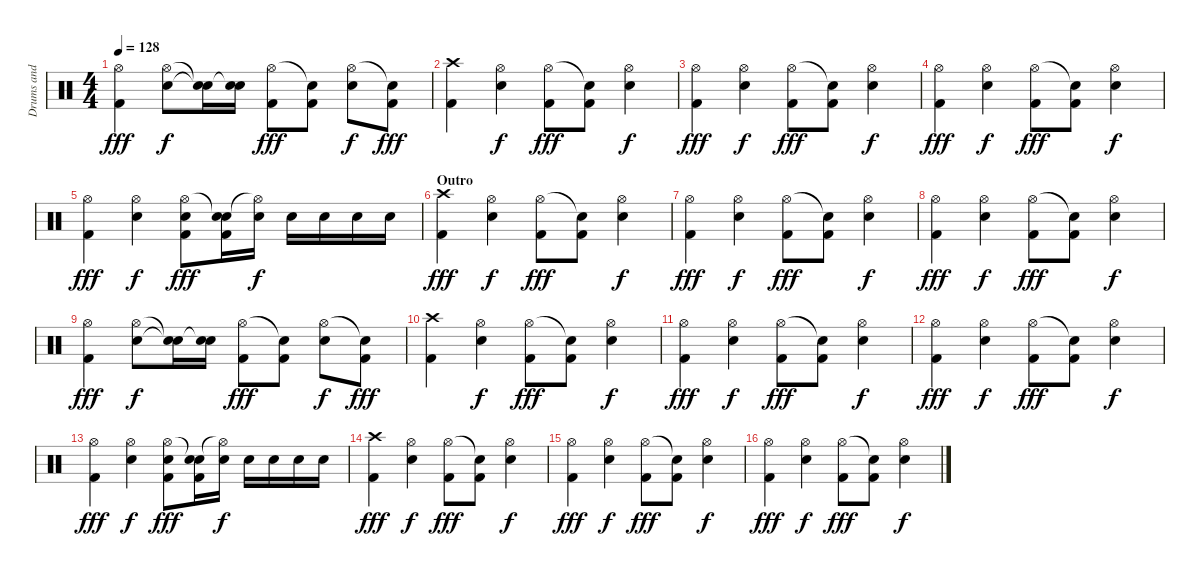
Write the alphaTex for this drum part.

\track ("Drums and Percussion" "Drums and ") {instrument percussion}
\staff {score}
\articulation defaults
\ts (4 4)
\tempo 128
\clef neutral
\ks c
("Hi-Hat (open)" "Kick (hit) 2").4{dy fff} ("Hi-Hat (open)" "Electric Snare (hit)").8{dy f} ("Snare (hit)"{t} "Snare (hit)"{t}).16 ("Snare (hit)"{t} "Electric Snare (hit)").16 ("Hi-Hat (open)" "Kick (hit) 2").8{dy fff} ("Snare (hit)"{t} "Kick (hit) 2").8 ("Hi-Hat (open)" "Electric Snare (hit)").8{dy f} ("Snare (hit)"{t} "Kick (hit) 2").8{dy fff} |
("Crash high (hit)" "Kick (hit) 2").4 ("Hi-Hat (open)" "Electric Snare (hit)").4{dy f} ("Hi-Hat (open)" "Kick (hit) 2").8{dy fff} ("Snare (hit)"{t} "Kick (hit) 2").8 ("Hi-Hat (open)" "Electric Snare (hit)").4{dy f} |
("Hi-Hat (open)" "Kick (hit) 2").4{dy fff} ("Hi-Hat (open)" "Electric Snare (hit)").4{dy f} ("Hi-Hat (open)" "Kick (hit) 2").8{dy fff} ("Snare (hit)"{t} "Kick (hit) 2").8 ("Hi-Hat (open)" "Electric Snare (hit)").4{dy f} |
("Hi-Hat (open)" "Kick (hit) 2").4{dy fff} ("Hi-Hat (open)" "Electric Snare (hit)").4{dy f} ("Hi-Hat (open)" "Kick (hit) 2").8{dy fff} ("Snare (hit)"{t} "Kick (hit) 2").8 ("Hi-Hat (open)" "Electric Snare (hit)").4{dy f} |
("Hi-Hat (open)" "Kick (hit) 2").4{dy fff} ("Hi-Hat (open)" "Electric Snare (hit)").4{dy f} ("Hi-Hat (open)" "Electric Snare (hit)" "Kick (hit) 2").8{dy fff} ("Snare (hit)"{t} "Electric Snare (hit)" "Kick (hit) 2").16 ("Hi-Hat (open)"{t} "Electric Snare (hit)").16{dy f} "Electric Snare (hit)".16 "Electric Snare (hit)".16 "Electric Snare (hit)".16 "Electric Snare (hit)".16 |
\section ("" "Outro")
("Crash high (hit)" "Kick (hit) 2").4{dy fff} ("Hi-Hat (open)" "Electric Snare (hit)").4{dy f} ("Hi-Hat (open)" "Kick (hit) 2").8{dy fff} ("Snare (hit)"{t} "Kick (hit) 2").8 ("Hi-Hat (open)" "Electric Snare (hit)").4{dy f} |
("Hi-Hat (open)" "Kick (hit) 2").4{dy fff} ("Hi-Hat (open)" "Electric Snare (hit)").4{dy f} ("Hi-Hat (open)" "Kick (hit) 2").8{dy fff} ("Snare (hit)"{t} "Kick (hit) 2").8 ("Hi-Hat (open)" "Electric Snare (hit)").4{dy f} |
("Hi-Hat (open)" "Kick (hit) 2").4{dy fff} ("Hi-Hat (open)" "Electric Snare (hit)").4{dy f} ("Hi-Hat (open)" "Kick (hit) 2").8{dy fff} ("Snare (hit)"{t} "Kick (hit) 2").8 ("Hi-Hat (open)" "Electric Snare (hit)").4{dy f} |
("Hi-Hat (open)" "Kick (hit) 2").4{dy fff} ("Hi-Hat (open)" "Electric Snare (hit)").8{dy f} ("Snare (hit)"{t} "Snare (hit)"{t}).16 ("Snare (hit)"{t} "Electric Snare (hit)").16 ("Hi-Hat (open)" "Kick (hit) 2").8{dy fff} ("Snare (hit)"{t} "Kick (hit) 2").8 ("Hi-Hat (open)" "Electric Snare (hit)").8{dy f} ("Snare (hit)"{t} "Kick (hit) 2").8{dy fff} |
("Crash high (hit)" "Kick (hit) 2").4 ("Hi-Hat (open)" "Electric Snare (hit)").4{dy f} ("Hi-Hat (open)" "Kick (hit) 2").8{dy fff} ("Snare (hit)"{t} "Kick (hit) 2").8 ("Hi-Hat (open)" "Electric Snare (hit)").4{dy f} |
("Hi-Hat (open)" "Kick (hit) 2").4{dy fff} ("Hi-Hat (open)" "Electric Snare (hit)").4{dy f} ("Hi-Hat (open)" "Kick (hit) 2").8{dy fff} ("Snare (hit)"{t} "Kick (hit) 2").8 ("Hi-Hat (open)" "Electric Snare (hit)").4{dy f} |
("Hi-Hat (open)" "Kick (hit) 2").4{dy fff} ("Hi-Hat (open)" "Electric Snare (hit)").4{dy f} ("Hi-Hat (open)" "Kick (hit) 2").8{dy fff} ("Snare (hit)"{t} "Kick (hit) 2").8 ("Hi-Hat (open)" "Electric Snare (hit)").4{dy f} |
("Hi-Hat (open)" "Kick (hit) 2").4{dy fff} ("Hi-Hat (open)" "Electric Snare (hit)").4{dy f} ("Hi-Hat (open)" "Electric Snare (hit)" "Kick (hit) 2").8{dy fff} ("Snare (hit)"{t} "Electric Snare (hit)" "Kick (hit) 2").16 ("Hi-Hat (open)"{t} "Electric Snare (hit)").16{dy f} "Electric Snare (hit)".16 "Electric Snare (hit)".16 "Electric Snare (hit)".16 "Electric Snare (hit)".16 |
("Crash high (hit)" "Kick (hit) 2").4{dy fff} ("Hi-Hat (open)" "Electric Snare (hit)").4{dy f} ("Hi-Hat (open)" "Kick (hit) 2").8{dy fff} ("Snare (hit)"{t} "Kick (hit) 2").8 ("Hi-Hat (open)" "Electric Snare (hit)").4{dy f} |
("Hi-Hat (open)" "Kick (hit) 2").4{dy fff} ("Hi-Hat (open)" "Electric Snare (hit)").4{dy f} ("Hi-Hat (open)" "Kick (hit) 2").8{dy fff} ("Snare (hit)"{t} "Kick (hit) 2").8 ("Hi-Hat (open)" "Electric Snare (hit)").4{dy f} |
("Hi-Hat (open)" "Kick (hit) 2").4{dy fff} ("Hi-Hat (open)" "Electric Snare (hit)").4{dy f} ("Hi-Hat (open)" "Kick (hit) 2").8{dy fff} ("Snare (hit)"{t} "Kick (hit) 2").8 ("Hi-Hat (open)" "Electric Snare (hit)").4{dy f}
